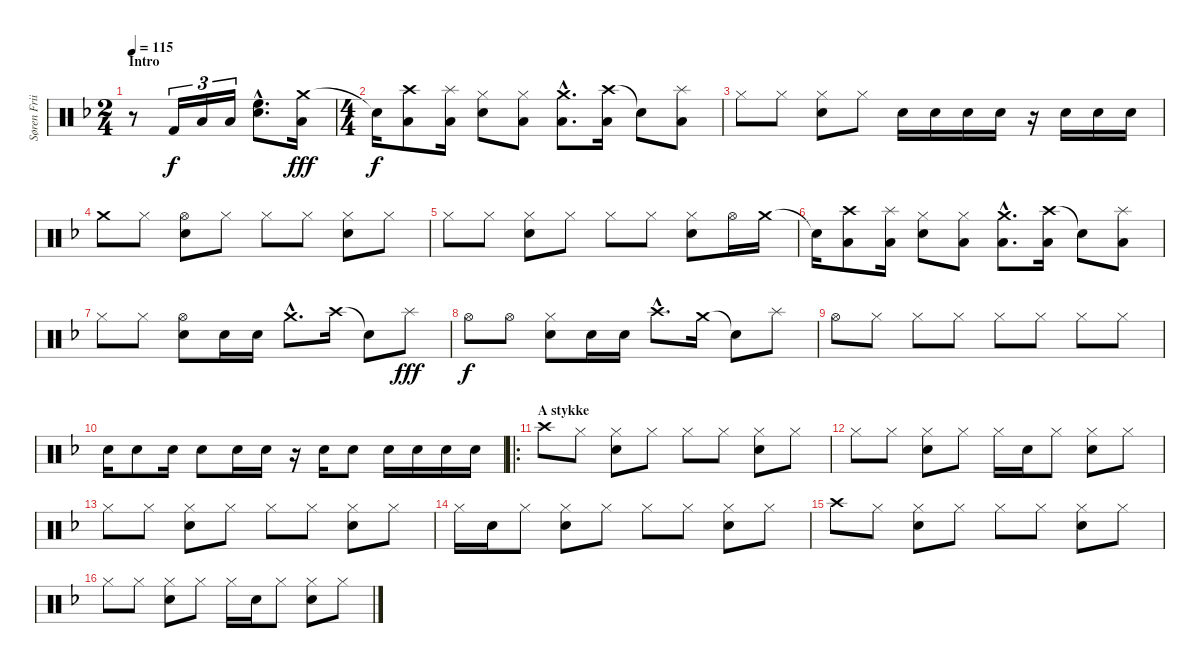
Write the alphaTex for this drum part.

\track ("Søren Friis (Drums)" "Søren Frii") {instrument percussion}
\staff {score}
\articulation defaults
\ts (2 4)
\section ("" "Intro")
\tempo 115
\clef neutral
\ks f
r.8{dy f} "Kick (hit) 2".16{tu (3 2)} "Low Floor Tom (hit)".16{tu (3 2)} "Low Tom (hit)".16{tu (3 2)} ("High Floor Tom (hit)"{hac} "Snare (hit) 2"{hac}).8{d} ("Crash medium (hit)" "Low Floor Tom (hit)").16{dy fff} |
\ts (4 4)
"Snare (hit)"{t}.16{dy f} ("Crash high (hit)" "Low Floor Tom (hit)").8 ("Splash (hit)" "Low Floor Tom (hit)").16 ("Hi-Hat (closed)" "Snare (hit) 2").8 ("Hi-Hat (closed)" "Low Floor Tom (hit)").8 ("Crash medium (hit)"{hac} "Low Floor Tom (hit)"{hac}).8{d} ("Crash high (hit)" "Low Floor Tom (hit)").16 "Snare (hit)"{t}.8 ("Splash (hit)" "Low Floor Tom (hit)").8 |
"Hi-Hat (closed)".8 "Hi-Hat (closed)".8 ("Hi-Hat (closed)" "Snare (hit) 2").8 "Hi-Hat (closed)".8 "Electric Snare (hit)".16 "Electric Snare (hit)".16 "Electric Snare (hit)".16 "Electric Snare (hit)".16 r.16 "Electric Snare (hit)".16 "Electric Snare (hit)".16 "Electric Snare (hit)".16 |
"Crash medium (hit)".8 "Hi-Hat (closed)".8 ("Hi-Hat (open)" "Snare (hit) 2").8 "Hi-Hat (closed)".8 "Hi-Hat (closed)".8 "Hi-Hat (closed)".8 ("Hi-Hat (closed)" "Snare (hit) 2").8 "Hi-Hat (closed)".8 |
"Hi-Hat (closed)".8 "Hi-Hat (closed)".8 ("Hi-Hat (closed)" "Snare (hit) 2").8 "Hi-Hat (closed)".8 "Hi-Hat (closed)".8 "Hi-Hat (closed)".8 ("Hi-Hat (closed)" "Snare (hit) 2").8 "Hi-Hat (open)".16 "Crash medium (hit)".16 |
"Snare (hit)"{t}.16 ("Crash high (hit)" "Low Floor Tom (hit)").8 ("Splash (hit)" "Low Floor Tom (hit)").16 ("Hi-Hat (closed)" "Snare (hit) 2").8 ("Hi-Hat (closed)" "Low Floor Tom (hit)").8 ("Crash medium (hit)"{hac} "Low Floor Tom (hit)"{hac}).8{d} ("Crash high (hit)" "Low Floor Tom (hit)").16 "Snare (hit)"{t}.8 ("Splash (hit)" "Low Floor Tom (hit)").8 |
"Hi-Hat (closed)".8 "Hi-Hat (closed)".8 ("Hi-Hat (open)" "Electric Snare (hit)").8 "Snare (hit) 2".16 "Snare (hit) 2".16 "Crash medium (hit)"{hac}.8{d} "Crash high (hit)".16 "Snare (hit)"{t}.8 "Splash (hit)".8{dy fff} |
"Hi-Hat (open)".8{dy f} "Hi-Hat (open)".8 ("Hi-Hat (closed)" "Snare (hit) 2").8 "Snare (hit) 2".16 "Snare (hit) 2".16 "Crash high (hit)"{hac}.8{d} "Crash medium (hit)".16 "Snare (hit)"{t}.8 "Splash (hit)".8 |
"Hi-Hat (open)".8 "Hi-Hat (closed)".8 "Hi-Hat (closed)".8 "Hi-Hat (closed)".8 "Hi-Hat (closed)".8 "Hi-Hat (closed)".8 "Hi-Hat (closed)".8 "Hi-Hat (closed)".8 |
"Snare (hit) 2".16 "Snare (hit) 2".8 "Snare (hit) 2".16 "Snare (hit) 2".8 "Snare (hit) 2".16 "Snare (hit) 2".16 r.16 "Snare (hit) 2".16 "Snare (hit) 2".8 "Snare (hit) 2".16 "Snare (hit) 2".16 "Snare (hit) 2".16 "Snare (hit) 2".16 |
\ro
\section ("" "A stykke")
"Crash high (hit)".8 "Hi-Hat (closed)".8 ("Hi-Hat (closed)" "Snare (hit) 2").8 "Hi-Hat (closed)".8 "Hi-Hat (closed)".8 "Hi-Hat (closed)".8 ("Hi-Hat (closed)" "Snare (hit) 2").8 "Hi-Hat (closed)".8 |
"Hi-Hat (closed)".8 "Hi-Hat (closed)".8 ("Hi-Hat (closed)" "Snare (hit) 2").8 "Hi-Hat (closed)".8 "Hi-Hat (closed)".16 "Snare (hit) 2".16 "Hi-Hat (closed)".8 ("Hi-Hat (closed)" "Snare (hit) 2").8 "Hi-Hat (closed)".8 |
"Hi-Hat (closed)".8 "Hi-Hat (closed)".8 ("Hi-Hat (closed)" "Snare (hit) 2").8 "Hi-Hat (closed)".8 "Hi-Hat (closed)".8 "Hi-Hat (closed)".8 ("Hi-Hat (closed)" "Snare (hit) 2").8 "Hi-Hat (closed)".8 |
"Hi-Hat (closed)".16 "Snare (hit) 2".16 "Hi-Hat (closed)".8 ("Hi-Hat (closed)" "Snare (hit) 2").8 "Hi-Hat (closed)".8 "Hi-Hat (closed)".8 "Hi-Hat (closed)".8 ("Hi-Hat (closed)" "Snare (hit) 2").8 "Hi-Hat (closed)".8 |
"Crash high (hit)".8 "Hi-Hat (closed)".8 ("Hi-Hat (closed)" "Snare (hit) 2").8 "Hi-Hat (closed)".8 "Hi-Hat (closed)".8 "Hi-Hat (closed)".8 ("Hi-Hat (closed)" "Snare (hit) 2").8 "Hi-Hat (closed)".8 |
"Hi-Hat (closed)".8 "Hi-Hat (closed)".8 ("Hi-Hat (closed)" "Snare (hit) 2").8 "Hi-Hat (closed)".8 "Hi-Hat (closed)".16 "Snare (hit) 2".16 "Hi-Hat (closed)".8 ("Hi-Hat (closed)" "Snare (hit) 2").8 "Hi-Hat (closed)".8
